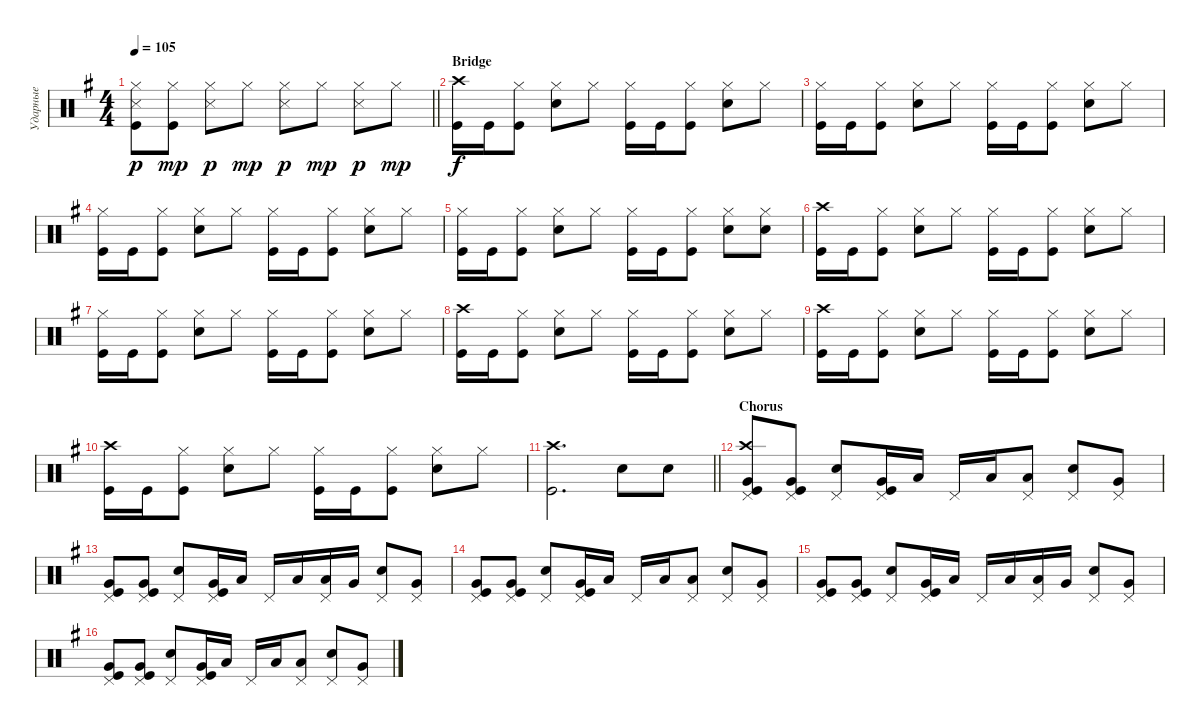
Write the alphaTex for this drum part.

\track ("Ударные" "Ударные") {instrument percussion}
\staff {score}
\articulation defaults
\ts (4 4)
\tempo 105
\clef neutral
\barLineRight lightlight
\ks eminor
("Hi-Hat (closed)" "Kick (hit)" "Snare (side stick) 3").8{dy p} ("Hi-Hat (closed)" "Kick (hit)").8{dy mp} ("Hi-Hat (closed)" "Snare (side stick) 3").8{dy p} "Hi-Hat (closed)".8{dy mp} ("Hi-Hat (closed)" "Snare (side stick) 3").8{dy p} "Hi-Hat (closed)".8{dy mp} ("Hi-Hat (closed)" "Snare (side stick) 3").8{dy p} "Hi-Hat (closed)".8{dy mp} |
\section ("" "Bridge")
("Kick (hit)" "Crash high (hit)").16{dy f} "Kick (hit)".16 ("Kick (hit)" "Hi-Hat (closed)").8 ("Snare (hit) 2" "Hi-Hat (closed)").8 "Hi-Hat (closed)".8 ("Kick (hit)" "Hi-Hat (closed)").16 "Kick (hit)".16 ("Kick (hit)" "Hi-Hat (closed)").8 ("Snare (hit) 2" "Hi-Hat (closed)").8 "Hi-Hat (closed)".8 |
("Kick (hit)" "Hi-Hat (closed)").16 "Kick (hit)".16 ("Kick (hit)" "Hi-Hat (closed)").8 ("Snare (hit) 2" "Hi-Hat (closed)").8 "Hi-Hat (closed)".8 ("Kick (hit)" "Hi-Hat (closed)").16 "Kick (hit)".16 ("Kick (hit)" "Hi-Hat (closed)").8 ("Snare (hit) 2" "Hi-Hat (closed)").8 "Hi-Hat (closed)".8 |
("Kick (hit)" "Hi-Hat (closed)").16 "Kick (hit)".16 ("Kick (hit)" "Hi-Hat (closed)").8 ("Snare (hit) 2" "Hi-Hat (closed)").8 "Hi-Hat (closed)".8 ("Kick (hit)" "Hi-Hat (closed)").16 "Kick (hit)".16 ("Kick (hit)" "Hi-Hat (closed)").8 ("Snare (hit) 2" "Hi-Hat (closed)").8 "Hi-Hat (closed)".8 |
("Kick (hit)" "Hi-Hat (closed)").16 "Kick (hit)".16 ("Kick (hit)" "Hi-Hat (closed)").8 ("Snare (hit) 2" "Hi-Hat (closed)").8 "Hi-Hat (closed)".8 ("Kick (hit)" "Hi-Hat (closed)").16 "Kick (hit)".16 ("Kick (hit)" "Hi-Hat (closed)").8 ("Snare (hit) 2" "Hi-Hat (closed)").8 ("Hi-Hat (closed)" "Snare (hit) 2").8 |
("Kick (hit)" "Crash high (hit)").16 "Kick (hit)".16 ("Kick (hit)" "Hi-Hat (closed)").8 ("Snare (hit) 2" "Hi-Hat (closed)").8 "Hi-Hat (closed)".8 ("Kick (hit)" "Hi-Hat (closed)").16 "Kick (hit)".16 ("Kick (hit)" "Hi-Hat (closed)").8 ("Snare (hit) 2" "Hi-Hat (closed)").8 "Hi-Hat (closed)".8 |
("Kick (hit)" "Hi-Hat (closed)").16 "Kick (hit)".16 ("Kick (hit)" "Hi-Hat (closed)").8 ("Snare (hit) 2" "Hi-Hat (closed)").8 "Hi-Hat (closed)".8 ("Kick (hit)" "Hi-Hat (closed)").16 "Kick (hit)".16 ("Kick (hit)" "Hi-Hat (closed)").8 ("Snare (hit) 2" "Hi-Hat (closed)").8 "Hi-Hat (closed)".8 |
("Kick (hit)" "Crash high (hit)").16 "Kick (hit)".16 ("Kick (hit)" "Hi-Hat (closed)").8 ("Snare (hit) 2" "Hi-Hat (closed)").8 "Hi-Hat (closed)".8 ("Kick (hit)" "Hi-Hat (closed)").16 "Kick (hit)".16 ("Kick (hit)" "Hi-Hat (closed)").8 ("Snare (hit) 2" "Hi-Hat (closed)").8 "Hi-Hat (closed)".8 |
("Kick (hit)" "Crash high (hit)").16 "Kick (hit)".16 ("Kick (hit)" "Hi-Hat (closed)").8 ("Snare (hit) 2" "Hi-Hat (closed)").8 "Hi-Hat (closed)".8 ("Kick (hit)" "Hi-Hat (closed)").16 "Kick (hit)".16 ("Kick (hit)" "Hi-Hat (closed)").8 ("Snare (hit) 2" "Hi-Hat (closed)").8 "Hi-Hat (closed)".8 |
("Kick (hit)" "Crash high (hit)").16 "Kick (hit)".16 ("Kick (hit)" "Hi-Hat (closed)").8 ("Snare (hit) 2" "Hi-Hat (closed)").8 "Hi-Hat (closed)".8 ("Kick (hit)" "Hi-Hat (closed)").16 "Kick (hit)".16 ("Kick (hit)" "Hi-Hat (closed)").8 ("Snare (hit) 2" "Hi-Hat (closed)").8 "Hi-Hat (closed)".8 |
\barLineRight lightlight
("Kick (hit)" "Crash high (hit)").2{d} "Snare (hit) 2".8 "Snare (hit) 2".8 |
\section ("" "Chorus")
("Kick (hit)" "Very Low Tom (hit)" "Pedal Hi-Hat (hit)" "Crash high (hit)").8 ("Kick (hit)" "Very Low Tom (hit)" "Pedal Hi-Hat (hit)").8 ("Snare (hit) 2" "Pedal Hi-Hat (hit)").8 ("Kick (hit)" "Very Low Tom (hit)" "Pedal Hi-Hat (hit)").16 "Low Tom (hit)".16 "Pedal Hi-Hat (hit)".16 "Low Tom (hit)".16 ("Low Tom (hit)" "Pedal Hi-Hat (hit)").8 ("Snare (hit) 2" "Pedal Hi-Hat (hit)").8 ("Very Low Tom (hit)" "Pedal Hi-Hat (hit)").8 |
("Kick (hit)" "Very Low Tom (hit)" "Pedal Hi-Hat (hit)").8 ("Kick (hit)" "Very Low Tom (hit)" "Pedal Hi-Hat (hit)").8 ("Snare (hit) 2" "Pedal Hi-Hat (hit)").8 ("Kick (hit)" "Very Low Tom (hit)" "Pedal Hi-Hat (hit)").16 "Low Tom (hit)".16 "Pedal Hi-Hat (hit)".16 "Low Tom (hit)".16 ("Low Tom (hit)" "Pedal Hi-Hat (hit)").16 "Very Low Tom (hit)".16 ("Snare (hit) 2" "Pedal Hi-Hat (hit)").8 ("Very Low Tom (hit)" "Pedal Hi-Hat (hit)").8 |
("Kick (hit)" "Very Low Tom (hit)" "Pedal Hi-Hat (hit)").8 ("Kick (hit)" "Very Low Tom (hit)" "Pedal Hi-Hat (hit)").8 ("Snare (hit) 2" "Pedal Hi-Hat (hit)").8 ("Kick (hit)" "Very Low Tom (hit)" "Pedal Hi-Hat (hit)").16 "Low Tom (hit)".16 "Pedal Hi-Hat (hit)".16 "Low Tom (hit)".16 ("Low Tom (hit)" "Pedal Hi-Hat (hit)").8 ("Snare (hit) 2" "Pedal Hi-Hat (hit)").8 ("Very Low Tom (hit)" "Pedal Hi-Hat (hit)").8 |
("Kick (hit)" "Very Low Tom (hit)" "Pedal Hi-Hat (hit)").8 ("Kick (hit)" "Very Low Tom (hit)" "Pedal Hi-Hat (hit)").8 ("Snare (hit) 2" "Pedal Hi-Hat (hit)").8 ("Kick (hit)" "Very Low Tom (hit)" "Pedal Hi-Hat (hit)").16 "Low Tom (hit)".16 "Pedal Hi-Hat (hit)".16 "Low Tom (hit)".16 ("Low Tom (hit)" "Pedal Hi-Hat (hit)").16 "Very Low Tom (hit)".16 ("Snare (hit) 2" "Pedal Hi-Hat (hit)").8 ("Very Low Tom (hit)" "Pedal Hi-Hat (hit)").8 |
("Kick (hit)" "Very Low Tom (hit)" "Pedal Hi-Hat (hit)").8 ("Kick (hit)" "Very Low Tom (hit)" "Pedal Hi-Hat (hit)").8 ("Snare (hit) 2" "Pedal Hi-Hat (hit)").8 ("Kick (hit)" "Very Low Tom (hit)" "Pedal Hi-Hat (hit)").16 "Low Tom (hit)".16 "Pedal Hi-Hat (hit)".16 "Low Tom (hit)".16 ("Low Tom (hit)" "Pedal Hi-Hat (hit)").8 ("Snare (hit) 2" "Pedal Hi-Hat (hit)").8 ("Very Low Tom (hit)" "Pedal Hi-Hat (hit)").8
